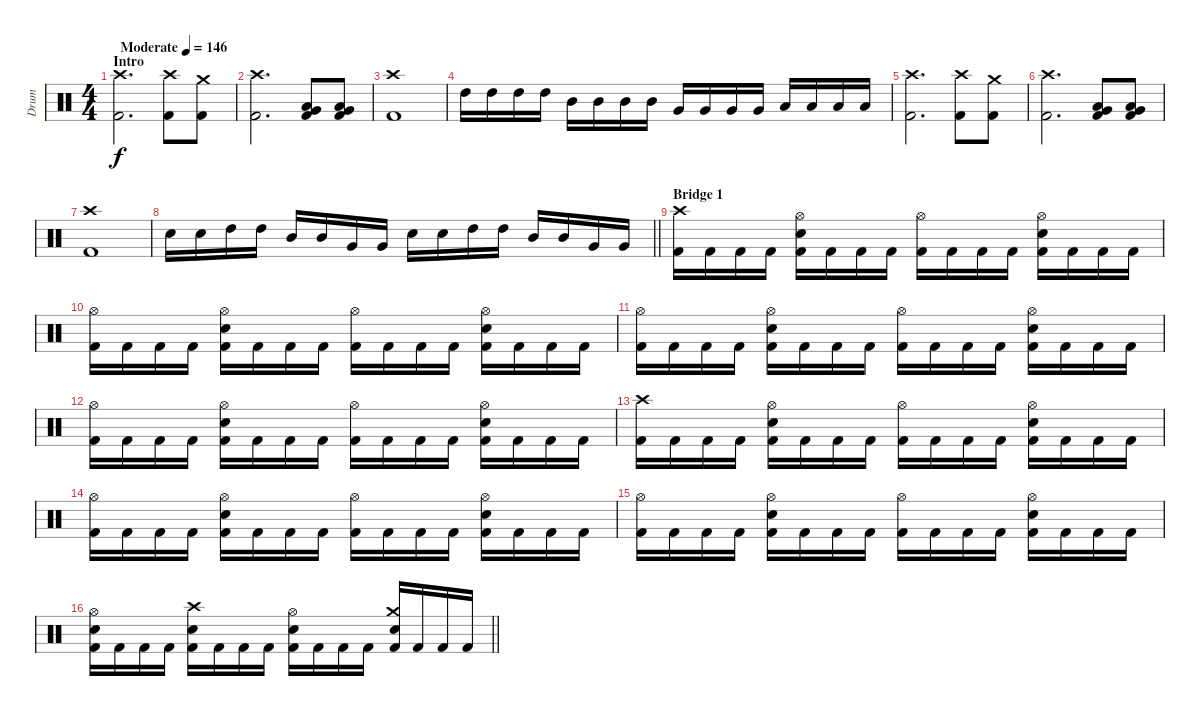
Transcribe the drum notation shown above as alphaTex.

\track ("Drum" "Drum") {instrument percussion}
\staff {score}
\articulation defaults
\ts (4 4)
\section ("" "Intro")
\tempo (146 "Moderate")
\clef neutral
\ks c
("Crash high (hit)" "Kick (hit) 2").2{d dy f} ("Crash high (hit)" "Kick (hit) 2").8 ("Crash medium (hit)" "Kick (hit) 2").8 |
("Crash high (hit)" "Kick (hit) 2").2{d} ("Very Low Tom (hit)" "Low Floor Tom (hit)" "Kick (hit) 2").8 ("Very Low Tom (hit)" "Low Floor Tom (hit)" "Kick (hit) 2").8 |
("Crash high (hit)" "Kick (hit) 2").1 |
"High Tom (hit)".16 "High Tom (hit)".16 "High Tom (hit)".16 "High Tom (hit)".16 "Mid Tom (hit)".16 "Mid Tom (hit)".16 "Mid Tom (hit)".16 "Mid Tom (hit)".16 "Very Low Tom (hit)".16 "Very Low Tom (hit)".16 "Very Low Tom (hit)".16 "Very Low Tom (hit)".16 "Low Floor Tom (hit)".16 "Low Floor Tom (hit)".16 "Low Floor Tom (hit)".16 "Low Floor Tom (hit)".16 |
("Crash high (hit)" "Kick (hit) 2").2{d} ("Crash high (hit)" "Kick (hit) 2").8 ("Crash medium (hit)" "Kick (hit) 2").8 |
("Crash high (hit)" "Kick (hit) 2").2{d} ("Very Low Tom (hit)" "Low Floor Tom (hit)" "Kick (hit) 2").8 ("Very Low Tom (hit)" "Low Floor Tom (hit)" "Kick (hit) 2").8 |
("Crash high (hit)" "Kick (hit) 2").1 |
\barLineRight lightlight "Electric Snare (hit)".16 "Electric Snare (hit)".16 "High Tom (hit)".16 "High Tom (hit)".16 "Mid Tom (hit)".16 "Mid Tom (hit)".16 "Very Low Tom (hit)".16 "Very Low Tom (hit)".16 "Electric Snare (hit)".16 "Electric Snare (hit)".16 "High Tom (hit)".16 "High Tom (hit)".16 "Mid Tom (hit)".16 "Mid Tom (hit)".16 "Very Low Tom (hit)".16 "Very Low Tom (hit)".16
|
\section ("" "Bridge 1")
("Crash high (hit)" "Kick (hit) 2").16 "Kick (hit) 2".16 "Kick (hit) 2".16 "Kick (hit) 2".16 ("Hi-Hat (open)" "Electric Snare (hit)" "Kick (hit) 2").16 "Kick (hit) 2".16 "Kick (hit) 2".16 "Kick (hit) 2".16 ("Hi-Hat (open)" "Kick (hit) 2").16 "Kick (hit) 2".16 "Kick (hit) 2".16 "Kick (hit) 2".16 ("Hi-Hat (open)" "Electric Snare (hit)" "Kick (hit) 2").16 "Kick (hit) 2".16 "Kick (hit) 2".16 "Kick (hit) 2".16 |
("Hi-Hat (open)" "Kick (hit) 2").16 "Kick (hit) 2".16 "Kick (hit) 2".16 "Kick (hit) 2".16 ("Hi-Hat (open)" "Electric Snare (hit)" "Kick (hit) 2").16 "Kick (hit) 2".16 "Kick (hit) 2".16 "Kick (hit) 2".16 ("Hi-Hat (open)" "Kick (hit) 2").16 "Kick (hit) 2".16 "Kick (hit) 2".16 "Kick (hit) 2".16 ("Hi-Hat (open)" "Electric Snare (hit)" "Kick (hit) 2").16 "Kick (hit) 2".16 "Kick (hit) 2".16 "Kick (hit) 2".16 |
("Hi-Hat (open)" "Kick (hit) 2").16 "Kick (hit) 2".16 "Kick (hit) 2".16 "Kick (hit) 2".16 ("Hi-Hat (open)" "Electric Snare (hit)" "Kick (hit) 2").16 "Kick (hit) 2".16 "Kick (hit) 2".16 "Kick (hit) 2".16 ("Hi-Hat (open)" "Kick (hit) 2").16 "Kick (hit) 2".16 "Kick (hit) 2".16 "Kick (hit) 2".16 ("Hi-Hat (open)" "Electric Snare (hit)" "Kick (hit) 2").16 "Kick (hit) 2".16 "Kick (hit) 2".16 "Kick (hit) 2".16 |
("Hi-Hat (open)" "Kick (hit) 2").16 "Kick (hit) 2".16 "Kick (hit) 2".16 "Kick (hit) 2".16 ("Hi-Hat (open)" "Electric Snare (hit)" "Kick (hit) 2").16 "Kick (hit) 2".16 "Kick (hit) 2".16 "Kick (hit) 2".16 ("Hi-Hat (open)" "Kick (hit) 2").16 "Kick (hit) 2".16 "Kick (hit) 2".16 "Kick (hit) 2".16 ("Hi-Hat (open)" "Electric Snare (hit)" "Kick (hit) 2").16 "Kick (hit) 2".16 "Kick (hit) 2".16 "Kick (hit) 2".16 |
("Crash high (hit)" "Kick (hit) 2").16 "Kick (hit) 2".16 "Kick (hit) 2".16 "Kick (hit) 2".16 ("Hi-Hat (open)" "Electric Snare (hit)" "Kick (hit) 2").16 "Kick (hit) 2".16 "Kick (hit) 2".16 "Kick (hit) 2".16 ("Hi-Hat (open)" "Kick (hit) 2").16 "Kick (hit) 2".16 "Kick (hit) 2".16 "Kick (hit) 2".16 ("Hi-Hat (open)" "Electric Snare (hit)" "Kick (hit) 2").16 "Kick (hit) 2".16 "Kick (hit) 2".16 "Kick (hit) 2".16 |
("Hi-Hat (open)" "Kick (hit) 2").16 "Kick (hit) 2".16 "Kick (hit) 2".16 "Kick (hit) 2".16 ("Hi-Hat (open)" "Electric Snare (hit)" "Kick (hit) 2").16 "Kick (hit) 2".16 "Kick (hit) 2".16 "Kick (hit) 2".16 ("Hi-Hat (open)" "Kick (hit) 2").16 "Kick (hit) 2".16 "Kick (hit) 2".16 "Kick (hit) 2".16 ("Hi-Hat (open)" "Electric Snare (hit)" "Kick (hit) 2").16 "Kick (hit) 2".16 "Kick (hit) 2".16 "Kick (hit) 2".16 |
("Hi-Hat (open)" "Kick (hit) 2").16 "Kick (hit) 2".16 "Kick (hit) 2".16 "Kick (hit) 2".16 ("Hi-Hat (open)" "Electric Snare (hit)" "Kick (hit) 2").16 "Kick (hit) 2".16 "Kick (hit) 2".16 "Kick (hit) 2".16 ("Hi-Hat (open)" "Kick (hit) 2").16 "Kick (hit) 2".16 "Kick (hit) 2".16 "Kick (hit) 2".16 ("Hi-Hat (open)" "Electric Snare (hit)" "Kick (hit) 2").16 "Kick (hit) 2".16 "Kick (hit) 2".16 "Kick (hit) 2".16 |
\barLineRight lightlight
("Hi-Hat (open)" "Electric Snare (hit)" "Kick (hit) 2").16 "Kick (hit) 2".16 "Kick (hit) 2".16 "Kick (hit) 2".16 ("Crash high (hit)" "Electric Snare (hit)" "Kick (hit) 2").16 "Kick (hit) 2".16 "Kick (hit) 2".16 "Kick (hit) 2".16 ("Hi-Hat (open)" "Electric Snare (hit)" "Kick (hit) 2").16 "Kick (hit) 2".16 "Kick (hit) 2".16 "Kick (hit) 2".16 ("Crash medium (hit)" "Electric Snare (hit)" "Kick (hit) 2").16 "Kick (hit) 2".16 "Kick (hit) 2".16 "Kick (hit) 2".16
